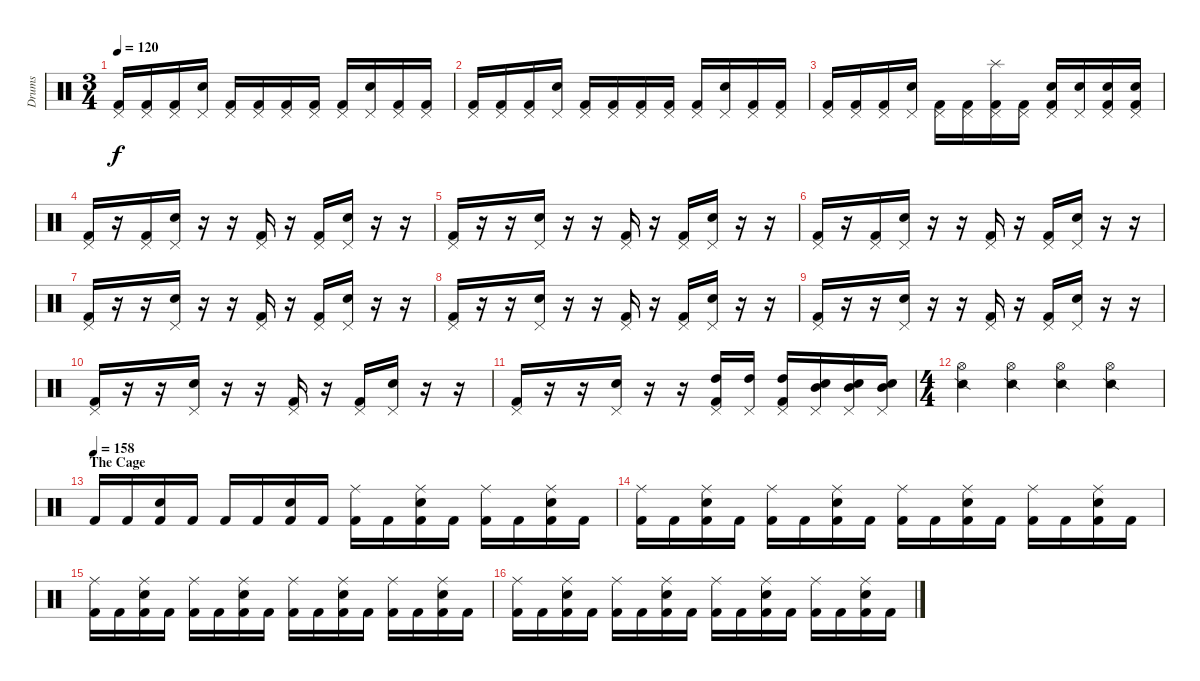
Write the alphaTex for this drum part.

\track ("Drums" "Drums") {instrument percussion}
\staff {score}
\articulation defaults
\ts (3 4)
\tempo 120
\clef neutral
\ks c
("Kick (hit) 2" "Pedal Hi-Hat (hit)").16{dy f} ("Kick (hit) 2" "Pedal Hi-Hat (hit)").16 ("Kick (hit) 2" "Pedal Hi-Hat (hit)").16 ("Pedal Hi-Hat (hit)" "Electric Snare (hit)").16 ("Kick (hit) 2" "Pedal Hi-Hat (hit)").16 ("Kick (hit) 2" "Pedal Hi-Hat (hit)").16 ("Kick (hit) 2" "Pedal Hi-Hat (hit)").16 ("Kick (hit) 2" "Pedal Hi-Hat (hit)").16 ("Kick (hit) 2" "Pedal Hi-Hat (hit)").16 ("Pedal Hi-Hat (hit)" "Electric Snare (hit)").16 ("Kick (hit) 2" "Pedal Hi-Hat (hit)").16 ("Kick (hit) 2" "Pedal Hi-Hat (hit)").16 |
("Kick (hit) 2" "Pedal Hi-Hat (hit)").16 ("Kick (hit) 2" "Pedal Hi-Hat (hit)").16 ("Kick (hit) 2" "Pedal Hi-Hat (hit)").16 ("Pedal Hi-Hat (hit)" "Electric Snare (hit)").16 ("Kick (hit) 2" "Pedal Hi-Hat (hit)").16 ("Kick (hit) 2" "Pedal Hi-Hat (hit)").16 ("Kick (hit) 2" "Pedal Hi-Hat (hit)").16 ("Kick (hit) 2" "Pedal Hi-Hat (hit)").16 ("Kick (hit) 2" "Pedal Hi-Hat (hit)").16 ("Pedal Hi-Hat (hit)" "Electric Snare (hit)").16 ("Kick (hit) 2" "Pedal Hi-Hat (hit)").16 ("Kick (hit) 2" "Pedal Hi-Hat (hit)").16 |
("Kick (hit) 2" "Pedal Hi-Hat (hit)").16 ("Kick (hit) 2" "Pedal Hi-Hat (hit)").16 ("Kick (hit) 2" "Pedal Hi-Hat (hit)").16 ("Pedal Hi-Hat (hit)" "Electric Snare (hit)").16 ("Kick (hit) 2" "Pedal Hi-Hat (hit)").16 ("Kick (hit) 2" "Pedal Hi-Hat (hit)").16 ("Kick (hit) 2" "Pedal Hi-Hat (hit)" "Splash (hit)").16 ("Kick (hit) 2" "Pedal Hi-Hat (hit)").16 ("Kick (hit) 2" "Pedal Hi-Hat (hit)" "Electric Snare (hit)").16 ("Pedal Hi-Hat (hit)" "Electric Snare (hit)").16 ("Kick (hit) 2" "Pedal Hi-Hat (hit)" "Electric Snare (hit)").16 ("Kick (hit) 2" "Pedal Hi-Hat (hit)" "Electric Snare (hit)").16 |
("Kick (hit) 2" "Pedal Hi-Hat (hit)").16 r.16 ("Kick (hit) 2" "Pedal Hi-Hat (hit)").16 ("Pedal Hi-Hat (hit)" "Electric Snare (hit)").16 r.16 r.16 ("Kick (hit) 2" "Pedal Hi-Hat (hit)").16 r.16 ("Kick (hit) 2" "Pedal Hi-Hat (hit)").16 ("Pedal Hi-Hat (hit)" "Electric Snare (hit)").16 r.16 r.16 |
("Kick (hit) 2" "Pedal Hi-Hat (hit)").16 r.16 r.16 ("Pedal Hi-Hat (hit)" "Electric Snare (hit)").16 r.16 r.16 ("Kick (hit) 2" "Pedal Hi-Hat (hit)").16 r.16 ("Kick (hit) 2" "Pedal Hi-Hat (hit)").16 ("Pedal Hi-Hat (hit)" "Electric Snare (hit)").16 r.16 r.16 |
("Kick (hit) 2" "Pedal Hi-Hat (hit)").16 r.16 ("Kick (hit) 2" "Pedal Hi-Hat (hit)").16 ("Pedal Hi-Hat (hit)" "Electric Snare (hit)").16 r.16 r.16 ("Kick (hit) 2" "Pedal Hi-Hat (hit)").16 r.16 ("Kick (hit) 2" "Pedal Hi-Hat (hit)").16 ("Pedal Hi-Hat (hit)" "Electric Snare (hit)").16 r.16 r.16 |
("Kick (hit) 2" "Pedal Hi-Hat (hit)").16 r.16 r.16 ("Pedal Hi-Hat (hit)" "Electric Snare (hit)").16 r.16 r.16 ("Kick (hit) 2" "Pedal Hi-Hat (hit)").16 r.16 ("Kick (hit) 2" "Pedal Hi-Hat (hit)").16 ("Pedal Hi-Hat (hit)" "Electric Snare (hit)").16 r.16 r.16 |
("Kick (hit) 2" "Pedal Hi-Hat (hit)").16 r.16 r.16 ("Pedal Hi-Hat (hit)" "Electric Snare (hit)").16 r.16 r.16 ("Kick (hit) 2" "Pedal Hi-Hat (hit)").16 r.16 ("Kick (hit) 2" "Pedal Hi-Hat (hit)").16 ("Pedal Hi-Hat (hit)" "Electric Snare (hit)").16 r.16 r.16 |
("Kick (hit) 2" "Pedal Hi-Hat (hit)").16 r.16 r.16 ("Pedal Hi-Hat (hit)" "Electric Snare (hit)").16 r.16 r.16 ("Kick (hit) 2" "Pedal Hi-Hat (hit)").16 r.16 ("Kick (hit) 2" "Pedal Hi-Hat (hit)").16 ("Pedal Hi-Hat (hit)" "Electric Snare (hit)").16 r.16 r.16 |
("Kick (hit) 2" "Pedal Hi-Hat (hit)").16 r.16 r.16 ("Pedal Hi-Hat (hit)" "Electric Snare (hit)").16 r.16 r.16 ("Kick (hit) 2" "Pedal Hi-Hat (hit)").16 r.16 ("Kick (hit) 2" "Pedal Hi-Hat (hit)").16 ("Pedal Hi-Hat (hit)" "Electric Snare (hit)").16 r.16 r.16 |
("Kick (hit) 2" "Pedal Hi-Hat (hit)").16 r.16 r.16 ("Pedal Hi-Hat (hit)" "Electric Snare (hit)").16 r.16 r.16 ("Kick (hit) 2" "Pedal Hi-Hat (hit)" "High Tom (hit)").16 ("Pedal Hi-Hat (hit)" "High Tom (hit)").16 ("Kick (hit) 2" "Pedal Hi-Hat (hit)" "High Tom (hit)").16 ("Pedal Hi-Hat (hit)" "Electric Snare (hit)" "Mid Tom (hit)").16 ("Pedal Hi-Hat (hit)" "Electric Snare (hit)" "Mid Tom (hit)").16 ("Pedal Hi-Hat (hit)" "Electric Snare (hit)" "Mid Tom (hit)").16 |
\ts (4 4)
("Snare (side stick) 2" "Hi-Hat (open)").4 ("Snare (side stick) 2" "Hi-Hat (open)").4 ("Snare (side stick) 2" "Hi-Hat (open)").4 ("Snare (side stick) 2" "Hi-Hat (open)").4 |
\section ("" "The Cage")
\tempo (158)
"Kick (hit) 2".16 "Kick (hit) 2".16 ("Electric Snare (hit)" "Kick (hit) 2").16 "Kick (hit) 2".16 "Kick (hit) 2".16 "Kick (hit) 2".16 ("Electric Snare (hit)" "Kick (hit) 2").16 "Kick (hit) 2".16 ("Kick (hit) 2" "Ride (middle)").16 "Kick (hit) 2".16 ("Electric Snare (hit)" "Kick (hit) 2" "Ride (middle)").16 "Kick (hit) 2".16 ("Kick (hit) 2" "Ride (middle)").16 "Kick (hit) 2".16 ("Electric Snare (hit)" "Kick (hit) 2" "Ride (middle)").16 "Kick (hit) 2".16 |
("Kick (hit) 2" "Ride (middle)").16 "Kick (hit) 2".16 ("Electric Snare (hit)" "Kick (hit) 2" "Ride (middle)").16 "Kick (hit) 2".16 ("Kick (hit) 2" "Ride (middle)").16 "Kick (hit) 2".16 ("Electric Snare (hit)" "Kick (hit) 2" "Ride (middle)").16 "Kick (hit) 2".16 ("Kick (hit) 2" "Ride (middle)").16 "Kick (hit) 2".16 ("Electric Snare (hit)" "Kick (hit) 2" "Ride (middle)").16 "Kick (hit) 2".16 ("Kick (hit) 2" "Ride (middle)").16 "Kick (hit) 2".16 ("Electric Snare (hit)" "Kick (hit) 2" "Ride (middle)").16 "Kick (hit) 2".16 |
("Kick (hit) 2" "Ride (middle)").16 "Kick (hit) 2".16 ("Electric Snare (hit)" "Kick (hit) 2" "Ride (middle)").16 "Kick (hit) 2".16 ("Kick (hit) 2" "Ride (middle)").16 "Kick (hit) 2".16 ("Electric Snare (hit)" "Kick (hit) 2" "Ride (middle)").16 "Kick (hit) 2".16 ("Kick (hit) 2" "Ride (middle)").16 "Kick (hit) 2".16 ("Electric Snare (hit)" "Kick (hit) 2" "Ride (middle)").16 "Kick (hit) 2".16 ("Kick (hit) 2" "Ride (middle)").16 "Kick (hit) 2".16 ("Electric Snare (hit)" "Kick (hit) 2" "Ride (middle)").16 "Kick (hit) 2".16 |
("Kick (hit) 2" "Ride (middle)").16 "Kick (hit) 2".16 ("Electric Snare (hit)" "Kick (hit) 2" "Ride (middle)").16 "Kick (hit) 2".16 ("Kick (hit) 2" "Ride (middle)").16 "Kick (hit) 2".16 ("Electric Snare (hit)" "Kick (hit) 2" "Ride (middle)").16 "Kick (hit) 2".16 ("Kick (hit) 2" "Ride (middle)").16 "Kick (hit) 2".16 ("Electric Snare (hit)" "Kick (hit) 2" "Ride (middle)").16 "Kick (hit) 2".16 ("Kick (hit) 2" "Ride (middle)").16 "Kick (hit) 2".16 ("Electric Snare (hit)" "Kick (hit) 2" "Ride (middle)").16 "Kick (hit) 2".16
